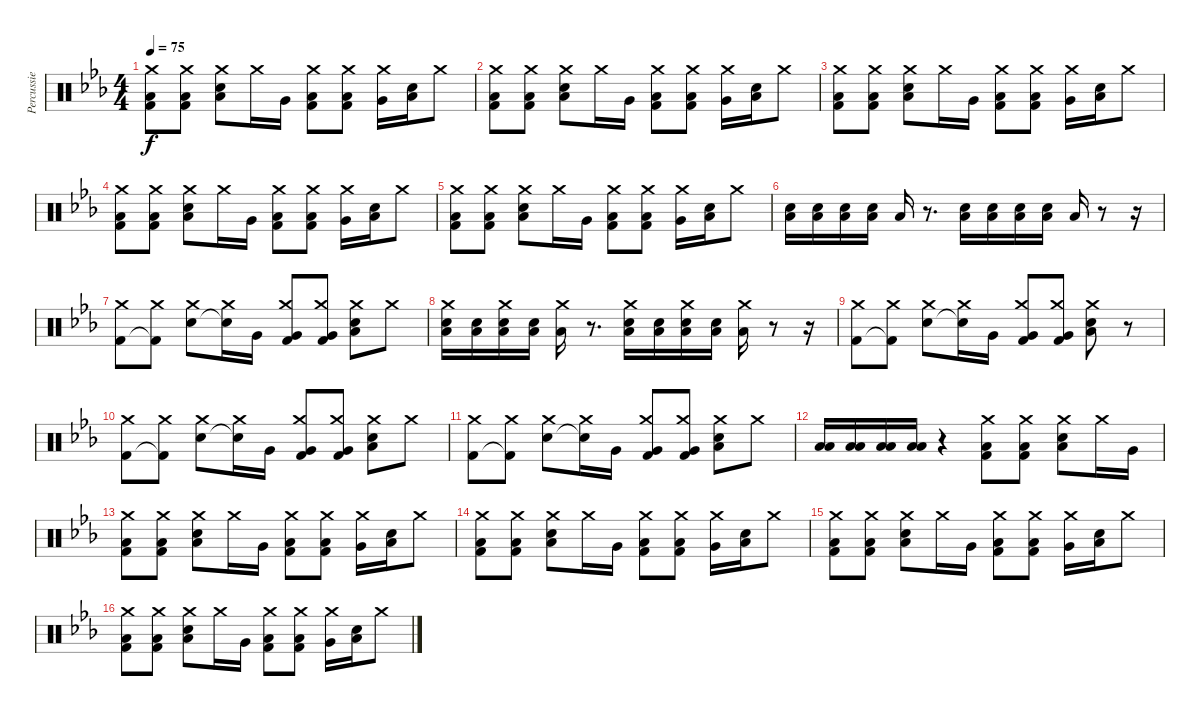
\track ("Percussie" "Percussie") {instrument percussion}
\staff {score}
\articulation defaults
\ts (4 4)
\tempo 75
\clef neutral
\ks eb
("Low Floor Tom (hit)" "Kick (hit) 2" "Crash medium (hit)").8{dy f} ("Low Floor Tom (hit)" "Kick (hit) 2" "Crash medium (hit)").8 ("Low Tom (hit)" "Electric Snare (hit)" "Crash medium (hit)").8 "Crash medium (hit)".16 "Very Low Tom (hit)".16 ("Low Floor Tom (hit)" "Kick (hit) 2" "Crash medium (hit)").8 ("Low Floor Tom (hit)" "Kick (hit) 2" "Crash medium (hit)").8 ("Very Low Tom (hit)" "Crash medium (hit)").16 ("Low Tom (hit)" "Electric Snare (hit)").16 "Crash medium (hit)".8 |
("Low Floor Tom (hit)" "Kick (hit) 2" "Crash medium (hit)").8 ("Low Floor Tom (hit)" "Kick (hit) 2" "Crash medium (hit)").8 ("Low Tom (hit)" "Electric Snare (hit)" "Crash medium (hit)").8 "Crash medium (hit)".16 "Very Low Tom (hit)".16 ("Low Floor Tom (hit)" "Kick (hit) 2" "Crash medium (hit)").8 ("Low Floor Tom (hit)" "Kick (hit) 2" "Crash medium (hit)").8 ("Very Low Tom (hit)" "Crash medium (hit)").16 ("Low Tom (hit)" "Electric Snare (hit)").16 "Crash medium (hit)".8 |
("Low Floor Tom (hit)" "Kick (hit) 2" "Crash medium (hit)").8 ("Low Floor Tom (hit)" "Kick (hit) 2" "Crash medium (hit)").8 ("Low Tom (hit)" "Electric Snare (hit)" "Crash medium (hit)").8 "Crash medium (hit)".16 "Very Low Tom (hit)".16 ("Low Floor Tom (hit)" "Kick (hit) 2" "Crash medium (hit)").8 ("Low Floor Tom (hit)" "Kick (hit) 2" "Crash medium (hit)").8 ("Very Low Tom (hit)" "Crash medium (hit)").16 ("Low Tom (hit)" "Electric Snare (hit)").16 "Crash medium (hit)".8 |
("Low Floor Tom (hit)" "Kick (hit) 2" "Crash medium (hit)").8 ("Low Floor Tom (hit)" "Kick (hit) 2" "Crash medium (hit)").8 ("Low Tom (hit)" "Electric Snare (hit)" "Crash medium (hit)").8 "Crash medium (hit)".16 "Very Low Tom (hit)".16 ("Low Floor Tom (hit)" "Kick (hit) 2" "Crash medium (hit)").8 ("Low Floor Tom (hit)" "Kick (hit) 2" "Crash medium (hit)").8 ("Very Low Tom (hit)" "Crash medium (hit)").16 ("Low Tom (hit)" "Electric Snare (hit)").16 "Crash medium (hit)".8 |
("Low Floor Tom (hit)" "Kick (hit) 2" "Crash medium (hit)").8 ("Low Floor Tom (hit)" "Kick (hit) 2" "Crash medium (hit)").8 ("Low Tom (hit)" "Electric Snare (hit)" "Crash medium (hit)").8 "Crash medium (hit)".16 "Very Low Tom (hit)".16 ("Low Floor Tom (hit)" "Kick (hit) 2" "Crash medium (hit)").8 ("Low Floor Tom (hit)" "Kick (hit) 2" "Crash medium (hit)").8 ("Very Low Tom (hit)" "Crash medium (hit)").16 ("Low Tom (hit)" "Electric Snare (hit)").16 "Crash medium (hit)".8 |
("Low Tom (hit)" "Electric Snare (hit)").16 ("Low Tom (hit)" "Electric Snare (hit)").16 ("Low Tom (hit)" "Electric Snare (hit)").16 ("Low Tom (hit)" "Electric Snare (hit)").16 "Low Tom (hit)".16 r.8{d} ("Low Tom (hit)" "Electric Snare (hit)").16 ("Low Tom (hit)" "Electric Snare (hit)").16 ("Low Tom (hit)" "Electric Snare (hit)").16 ("Low Tom (hit)" "Electric Snare (hit)").16 "Low Tom (hit)".16 r.8 r.16 |
("Crash medium (hit)" "Kick (hit) 2").8 ("Crash medium (hit)" "Kick (hit) 2"{t}).8 ("Crash medium (hit)" "Electric Snare (hit)").8 ("Crash medium (hit)" "Electric Snare (hit)"{t}).16 "Very Low Tom (hit)".16 ("Crash medium (hit)" "Very Low Tom (hit)" "Kick (hit) 2").8 ("Crash medium (hit)" "Very Low Tom (hit)" "Kick (hit) 2").8 ("Crash medium (hit)" "Electric Snare (hit)" "Low Tom (hit)").8 "Crash medium (hit)".8 |
("Crash medium (hit)" "Low Tom (hit)" "Electric Snare (hit)").16 ("Low Tom (hit)" "Electric Snare (hit)").16 ("Crash medium (hit)" "Low Tom (hit)" "Electric Snare (hit)").16 ("Low Tom (hit)" "Electric Snare (hit)").16 ("Crash medium (hit)" "Low Tom (hit)").16 r.8{d} ("Crash medium (hit)" "Low Tom (hit)" "Electric Snare (hit)").16 ("Low Tom (hit)" "Electric Snare (hit)").16 ("Crash medium (hit)" "Low Tom (hit)" "Electric Snare (hit)").16 ("Low Tom (hit)" "Electric Snare (hit)").16 ("Crash medium (hit)" "Low Tom (hit)").16 r.8 r.16 |
("Crash medium (hit)" "Kick (hit) 2").8 ("Crash medium (hit)" "Kick (hit) 2"{t}).8 ("Crash medium (hit)" "Electric Snare (hit)").8 ("Crash medium (hit)" "Electric Snare (hit)"{t}).16 "Very Low Tom (hit)".16 ("Crash medium (hit)" "Very Low Tom (hit)" "Kick (hit) 2").8 ("Crash medium (hit)" "Very Low Tom (hit)" "Kick (hit) 2").8 ("Crash medium (hit)" "Electric Snare (hit)" "Low Tom (hit)").8 r.8 |
("Crash medium (hit)" "Kick (hit) 2").8 ("Crash medium (hit)" "Kick (hit) 2"{t}).8 ("Crash medium (hit)" "Electric Snare (hit)").8 ("Crash medium (hit)" "Electric Snare (hit)"{t}).16 "Very Low Tom (hit)".16 ("Crash medium (hit)" "Very Low Tom (hit)" "Kick (hit) 2").8 ("Crash medium (hit)" "Very Low Tom (hit)" "Kick (hit) 2").8 ("Crash medium (hit)" "Electric Snare (hit)" "Low Tom (hit)").8 "Crash medium (hit)".8 |
("Crash medium (hit)" "Kick (hit) 2").8 ("Crash medium (hit)" "Kick (hit) 2"{t}).8 ("Crash medium (hit)" "Electric Snare (hit)").8 ("Crash medium (hit)" "Electric Snare (hit)"{t}).16 "Very Low Tom (hit)".16 ("Crash medium (hit)" "Very Low Tom (hit)" "Kick (hit) 2").8 ("Crash medium (hit)" "Very Low Tom (hit)" "Kick (hit) 2").8 ("Crash medium (hit)" "Electric Snare (hit)" "Low Tom (hit)").8 "Crash medium (hit)".8 |
("Low Floor Tom (hit)" "Low Tom (hit)").16 ("Low Floor Tom (hit)" "Low Tom (hit)").16 ("Low Floor Tom (hit)" "Low Tom (hit)").16 ("Low Floor Tom (hit)" "Low Tom (hit)").16 r.4 ("Low Floor Tom (hit)" "Kick (hit) 2" "Crash medium (hit)").8 ("Low Floor Tom (hit)" "Kick (hit) 2" "Crash medium (hit)").8 ("Low Tom (hit)" "Electric Snare (hit)" "Crash medium (hit)").8 "Crash medium (hit)".16 "Very Low Tom (hit)".16 |
("Low Floor Tom (hit)" "Kick (hit) 2" "Crash medium (hit)").8 ("Low Floor Tom (hit)" "Kick (hit) 2" "Crash medium (hit)").8 ("Low Tom (hit)" "Electric Snare (hit)" "Crash medium (hit)").8 "Crash medium (hit)".16 "Very Low Tom (hit)".16 ("Low Floor Tom (hit)" "Kick (hit) 2" "Crash medium (hit)").8 ("Low Floor Tom (hit)" "Kick (hit) 2" "Crash medium (hit)").8 ("Very Low Tom (hit)" "Crash medium (hit)").16 ("Low Tom (hit)" "Electric Snare (hit)").16 "Crash medium (hit)".8 |
("Low Floor Tom (hit)" "Kick (hit) 2" "Crash medium (hit)").8 ("Low Floor Tom (hit)" "Kick (hit) 2" "Crash medium (hit)").8 ("Low Tom (hit)" "Electric Snare (hit)" "Crash medium (hit)").8 "Crash medium (hit)".16 "Very Low Tom (hit)".16 ("Low Floor Tom (hit)" "Kick (hit) 2" "Crash medium (hit)").8 ("Low Floor Tom (hit)" "Kick (hit) 2" "Crash medium (hit)").8 ("Very Low Tom (hit)" "Crash medium (hit)").16 ("Low Tom (hit)" "Electric Snare (hit)").16 "Crash medium (hit)".8 |
("Low Floor Tom (hit)" "Kick (hit) 2" "Crash medium (hit)").8 ("Low Floor Tom (hit)" "Kick (hit) 2" "Crash medium (hit)").8 ("Low Tom (hit)" "Electric Snare (hit)" "Crash medium (hit)").8 "Crash medium (hit)".16 "Very Low Tom (hit)".16 ("Low Floor Tom (hit)" "Kick (hit) 2" "Crash medium (hit)").8 ("Low Floor Tom (hit)" "Kick (hit) 2" "Crash medium (hit)").8 ("Very Low Tom (hit)" "Crash medium (hit)").16 ("Low Tom (hit)" "Electric Snare (hit)").16 "Crash medium (hit)".8 |
("Low Floor Tom (hit)" "Kick (hit) 2" "Crash medium (hit)").8 ("Low Floor Tom (hit)" "Kick (hit) 2" "Crash medium (hit)").8 ("Low Tom (hit)" "Electric Snare (hit)" "Crash medium (hit)").8 "Crash medium (hit)".16 "Very Low Tom (hit)".16 ("Low Floor Tom (hit)" "Kick (hit) 2" "Crash medium (hit)").8 ("Low Floor Tom (hit)" "Kick (hit) 2" "Crash medium (hit)").8 ("Very Low Tom (hit)" "Crash medium (hit)").16 ("Low Tom (hit)" "Electric Snare (hit)").16 "Crash medium (hit)".8
